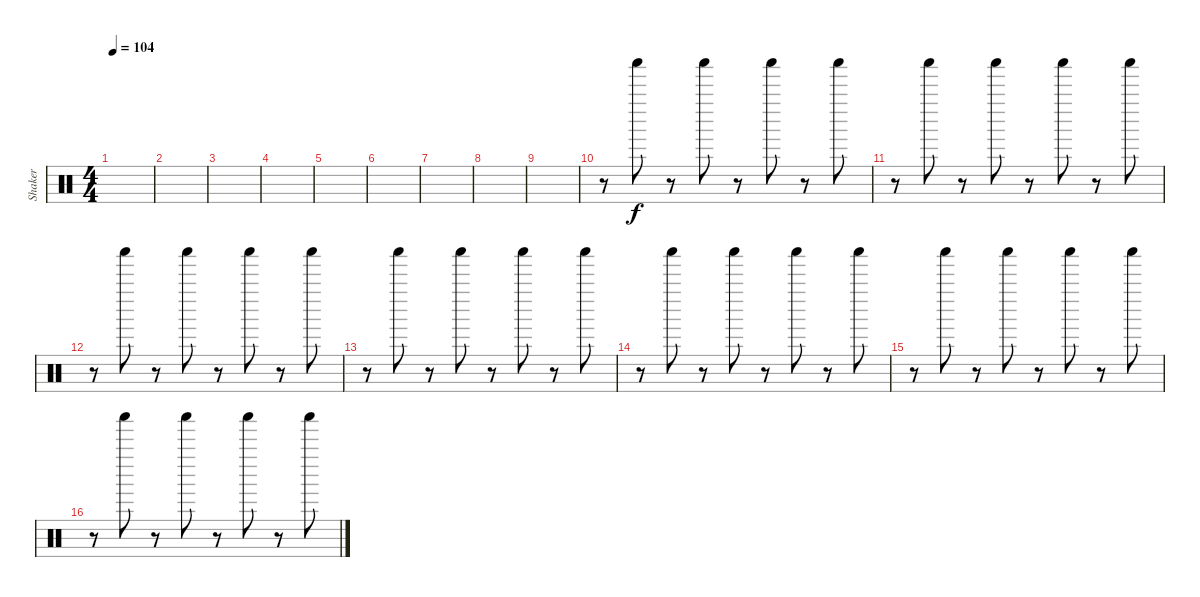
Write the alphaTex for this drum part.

\track ("Shaker" "Shaker") {instrument percussion}
\staff {score}
\articulation defaults
\ts (4 4)
\tempo 104
\clef neutral
\ks c
|
|
|
|
|
|
|
|
|
r.8 "Shaker (hit)".8 r.8 "Shaker (hit)".8 r.8 "Shaker (hit)".8 r.8 "Shaker (hit)".8 |
r.8 "Shaker (hit)".8 r.8 "Shaker (hit)".8 r.8 "Shaker (hit)".8 r.8 "Shaker (hit)".8 |
r.8 "Shaker (hit)".8 r.8 "Shaker (hit)".8 r.8 "Shaker (hit)".8 r.8 "Shaker (hit)".8 |
r.8 "Shaker (hit)".8 r.8 "Shaker (hit)".8 r.8 "Shaker (hit)".8 r.8 "Shaker (hit)".8 |
r.8 "Shaker (hit)".8 r.8 "Shaker (hit)".8 r.8 "Shaker (hit)".8 r.8 "Shaker (hit)".8 |
r.8 "Shaker (hit)".8 r.8 "Shaker (hit)".8 r.8 "Shaker (hit)".8 r.8 "Shaker (hit)".8 |
r.8 "Shaker (hit)".8 r.8 "Shaker (hit)".8 r.8 "Shaker (hit)".8 r.8 "Shaker (hit)".8
